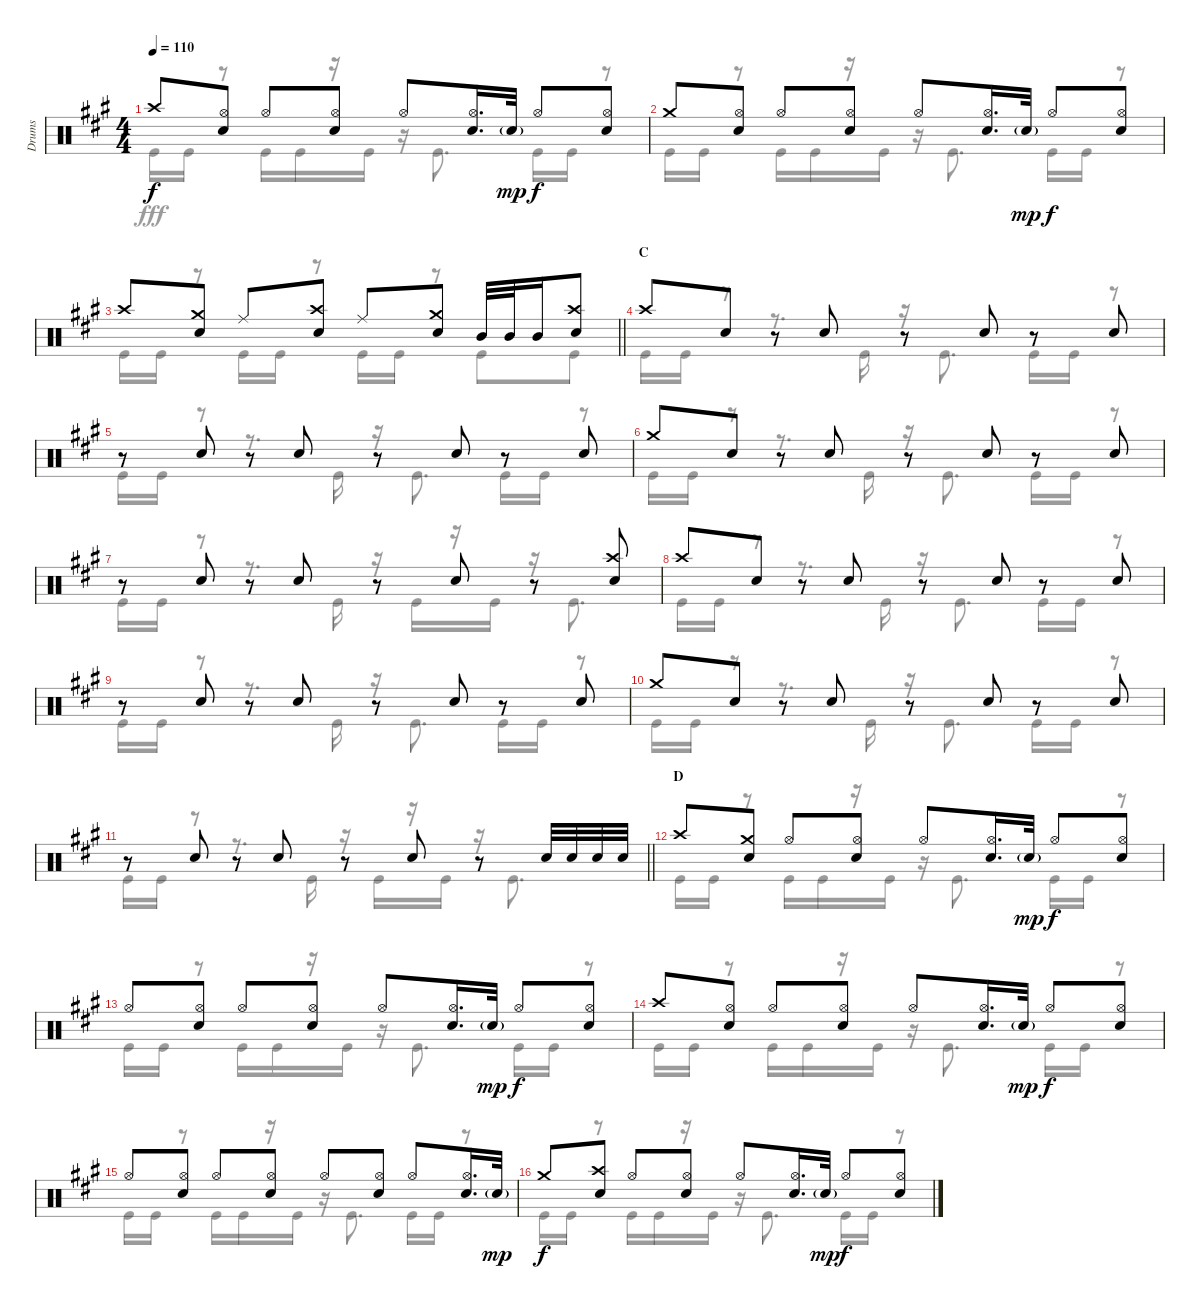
\track ("Drums" "Drums") {instrument percussion}
\staff {score}
\articulation defaults
\voice
\ts (4 4)
\tempo 110
\clef neutral
\ks a "Crash high (hit)".8{dy f}
("Hi-Hat (open)" "Snare (hit) 2").8 "Hi-Hat (open)".8 ("Hi-Hat (open)" "Snare (hit) 2").8 "Hi-Hat (open)".8 ("Hi-Hat (open)" "Snare (hit) 2").16{d} "Snare (hit) 2"{g}.32{dy mp} "Hi-Hat (open)".8{dy f} ("Hi-Hat (open)" "Snare (hit) 2").8 |
"Crash medium (hit)".8 ("Hi-Hat (open)" "Snare (hit) 2").8 "Hi-Hat (open)".8 ("Hi-Hat (open)" "Snare (hit) 2").8 "Hi-Hat (open)".8 ("Hi-Hat (open)" "Snare (hit) 2").16{d} "Snare (hit) 2"{g}.32{dy mp} "Hi-Hat (open)".8{dy f} ("Hi-Hat (open)" "Snare (hit) 2").8 |
\barLineRight lightlight "Crash high (hit)".8
("Crash medium (hit)" "Snare (hit) 2").8 "Ride (middle)".8 ("Crash high (hit)" "Snare (hit) 2").8 "Ride (middle)".8 ("Crash medium (hit)" "Snare (hit) 2").8 "Mid Tom (hit)".32 "Mid Tom (hit)".32 "Mid Tom (hit)".16 ("Crash high (hit)" "Snare (hit) 2").8 |
\section ("" "C")
"Crash high (hit)".8 "Snare (hit) 2".8 r.8 "Snare (hit) 2".8 r.8 "Snare (hit) 2".8 r.8 "Snare (hit) 2".8 |
r.8 "Snare (hit) 2".8 r.8 "Snare (hit) 2".8 r.8 "Snare (hit) 2".8 r.8 "Snare (hit) 2".8 |
"Crash medium (hit)".8 "Snare (hit) 2".8 r.8 "Snare (hit) 2".8 r.8 "Snare (hit) 2".8 r.8 "Snare (hit) 2".8 |
r.8 "Snare (hit) 2".8 r.8 "Snare (hit) 2".8 r.8 "Snare (hit) 2".8 r.8 ("Crash high (hit)" "Snare (hit) 2").8 |
"Crash high (hit)".8 "Snare (hit) 2".8 r.8 "Snare (hit) 2".8 r.8 "Snare (hit) 2".8 r.8 "Snare (hit) 2".8 |
r.8 "Snare (hit) 2".8 r.8 "Snare (hit) 2".8 r.8 "Snare (hit) 2".8 r.8 "Snare (hit) 2".8 |
"Crash medium (hit)".8 "Snare (hit) 2".8 r.8 "Snare (hit) 2".8 r.8 "Snare (hit) 2".8 r.8 "Snare (hit) 2".8 |
\barLineRight lightlight
r.8 "Snare (hit) 2".8 r.8 "Snare (hit) 2".8 r.8 "Snare (hit) 2".8 r.8 "Snare (hit) 2".32 "Snare (hit) 2".32 "Snare (hit) 2".32 "Snare (hit) 2".32 |
\section ("" "D")
"Crash high (hit)".8 ("Crash medium (hit)" "Snare (hit) 2").8 "Hi-Hat (open)".8 ("Hi-Hat (open)" "Snare (hit) 2").8 "Hi-Hat (open)".8 ("Hi-Hat (open)" "Snare (hit) 2").16{d} "Snare (hit) 2"{g}.32{dy mp} "Hi-Hat (open)".8{dy f} ("Hi-Hat (open)" "Snare (hit) 2").8 |
"Hi-Hat (open)".8 ("Hi-Hat (open)" "Snare (hit) 2").8 "Hi-Hat (open)".8 ("Hi-Hat (open)" "Snare (hit) 2").8 "Hi-Hat (open)".8 ("Hi-Hat (open)" "Snare (hit) 2").16{d} "Snare (hit) 2"{g}.32{dy mp} "Hi-Hat (open)".8{dy f} ("Hi-Hat (open)" "Snare (hit) 2").8 |
"Crash high (hit)".8 ("Hi-Hat (open)" "Snare (hit) 2").8 "Hi-Hat (open)".8 ("Hi-Hat (open)" "Snare (hit) 2").8 "Hi-Hat (open)".8 ("Hi-Hat (open)" "Snare (hit) 2").16{d} "Snare (hit) 2"{g}.32{dy mp} "Hi-Hat (open)".8{dy f} ("Hi-Hat (open)" "Snare (hit) 2").8 |
"Hi-Hat (open)".8 ("Hi-Hat (open)" "Snare (hit) 2").8 "Hi-Hat (open)".8 ("Hi-Hat (open)" "Snare (hit) 2").8 "Hi-Hat (open)".8 ("Hi-Hat (open)" "Snare (hit) 2").8 "Hi-Hat (open)".8 ("Hi-Hat (open)" "Snare (hit) 2").16{d} "Snare (hit) 2"{g}.32{dy mp} |
"Crash medium (hit)".8{dy f} ("Crash high (hit)" "Snare (hit) 2").8 "Hi-Hat (open)".8 ("Hi-Hat (open)" "Snare (hit) 2").8 "Hi-Hat (open)".8 ("Hi-Hat (open)" "Snare (hit) 2").16{d} "Snare (hit) 2"{g}.32{dy mp} "Hi-Hat (open)".8{dy f} ("Hi-Hat (open)" "Snare (hit) 2").8
\voice
\clef neutral
\ottava regular
\simile none
\ks a "Kick (hit)".16{dy fff} "Kick (hit)".16
r.8 "Kick (hit)".16 "Kick (hit)".16 r.16 "Kick (hit)".16 r.16 "Kick (hit)".8{d} "Kick (hit)".16 "Kick (hit)".16 r.8 |
"Kick (hit)".16 "Kick (hit)".16 r.8 "Kick (hit)".16 "Kick (hit)".16 r.16 "Kick (hit)".16 r.16 "Kick (hit)".8{d} "Kick (hit)".16 "Kick (hit)".16 r.8 |
\barLineRight lightlight "Kick (hit)".16 "Kick (hit)".16
r.8 "Kick (hit)".16 "Kick (hit)".16 r.8 "Kick (hit)".16 "Kick (hit)".16 r.8 "Kick (hit)".8 "Kick (hit)".8 |
"Kick (hit)".16 "Kick (hit)".16 r.8 r.8{d} "Kick (hit)".16 r.16 "Kick (hit)".8{d} "Kick (hit)".16 "Kick (hit)".16 r.8 |
"Kick (hit)".16 "Kick (hit)".16 r.8 r.8{d} "Kick (hit)".16 r.16 "Kick (hit)".8{d} "Kick (hit)".16 "Kick (hit)".16 r.8 |
"Kick (hit)".16 "Kick (hit)".16 r.8 r.8{d} "Kick (hit)".16 r.16 "Kick (hit)".8{d} "Kick (hit)".16 "Kick (hit)".16 r.8 |
"Kick (hit)".16 "Kick (hit)".16 r.8 r.8{d} "Kick (hit)".16 r.16 "Kick (hit)".16 r.16 "Kick (hit)".16 r.16 "Kick (hit)".8{d} |
"Kick (hit)".16 "Kick (hit)".16 r.8 r.8{d} "Kick (hit)".16 r.16 "Kick (hit)".8{d} "Kick (hit)".16 "Kick (hit)".16 r.8 |
"Kick (hit)".16 "Kick (hit)".16 r.8 r.8{d} "Kick (hit)".16 r.16 "Kick (hit)".8{d} "Kick (hit)".16 "Kick (hit)".16 r.8 |
"Kick (hit)".16 "Kick (hit)".16 r.8 r.8{d} "Kick (hit)".16 r.16 "Kick (hit)".8{d} "Kick (hit)".16 "Kick (hit)".16 r.8 |
\barLineRight lightlight "Kick (hit)".16 "Kick (hit)".16
r.8 r.8{d} "Kick (hit)".16 r.16 "Kick (hit)".16 r.16 "Kick (hit)".16 r.16 "Kick (hit)".8{d} |
"Kick (hit)".16 "Kick (hit)".16 r.8 "Kick (hit)".16 "Kick (hit)".16 r.16 "Kick (hit)".16 r.16 "Kick (hit)".8{d} "Kick (hit)".16 "Kick (hit)".16 r.8 |
"Kick (hit)".16 "Kick (hit)".16 r.8 "Kick (hit)".16 "Kick (hit)".16 r.16 "Kick (hit)".16 r.16 "Kick (hit)".8{d} "Kick (hit)".16 "Kick (hit)".16 r.8 |
"Kick (hit)".16 "Kick (hit)".16 r.8 "Kick (hit)".16 "Kick (hit)".16 r.16 "Kick (hit)".16 r.16 "Kick (hit)".8{d} "Kick (hit)".16 "Kick (hit)".16 r.8 |
"Kick (hit)".16 "Kick (hit)".16 r.8 "Kick (hit)".16 "Kick (hit)".16 r.16 "Kick (hit)".16 r.16 "Kick (hit)".8{d} "Kick (hit)".16 "Kick (hit)".16 r.8 |
"Kick (hit)".16 "Kick (hit)".16 r.8 "Kick (hit)".16 "Kick (hit)".16 r.16 "Kick (hit)".16 r.16 "Kick (hit)".8{d} "Kick (hit)".16 "Kick (hit)".16 r.8
